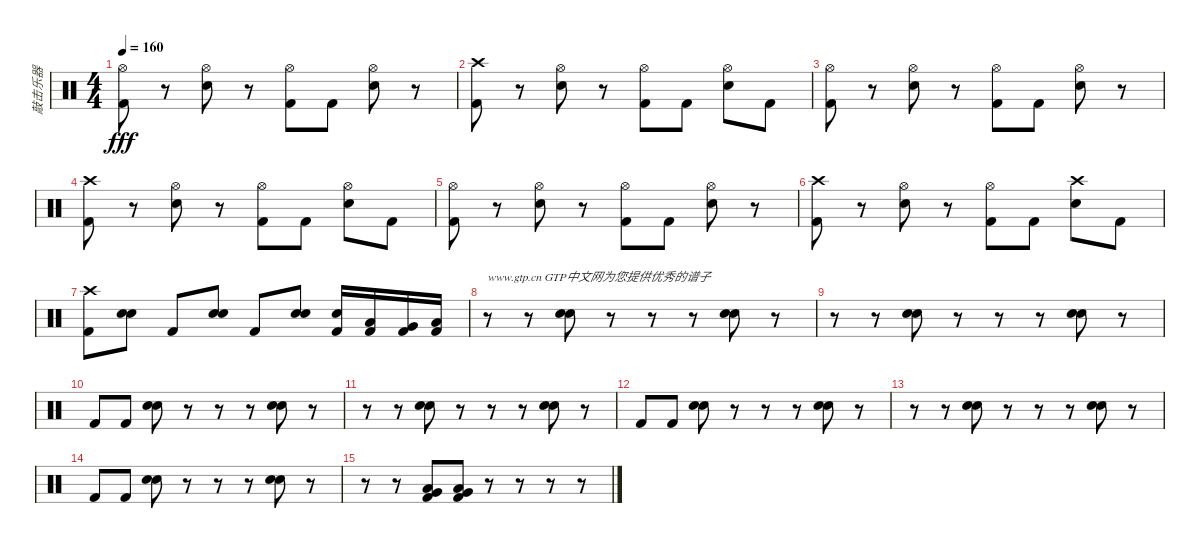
\track ("敲击乐器" "敲击乐器") {instrument percussion}
\staff {score}
\articulation defaults
\ts (4 4)
\tempo 160
\clef neutral
\ks c
("Hi-Hat (open)" "Kick (hit) 2").8{dy fff} r.8 ("Hi-Hat (open)" "Electric Snare (hit)").8 r.8 ("Hi-Hat (open)" "Kick (hit) 2").8 "Kick (hit) 2".8 ("Hi-Hat (open)" "Electric Snare (hit)").8 r.8 |
("Crash high (hit)" "Kick (hit) 2").8 r.8 ("Hi-Hat (open)" "Electric Snare (hit)").8 r.8 ("Hi-Hat (open)" "Kick (hit) 2").8 "Kick (hit) 2".8 ("Hi-Hat (open)" "Electric Snare (hit)").8 "Kick (hit) 2".8 |
("Hi-Hat (open)" "Kick (hit) 2").8 r.8 ("Hi-Hat (open)" "Electric Snare (hit)").8 r.8 ("Hi-Hat (open)" "Kick (hit) 2").8 "Kick (hit) 2".8 ("Hi-Hat (open)" "Electric Snare (hit)").8 r.8 |
("Crash high (hit)" "Kick (hit) 2").8 r.8 ("Hi-Hat (open)" "Electric Snare (hit)").8 r.8 ("Hi-Hat (open)" "Kick (hit) 2").8 "Kick (hit) 2".8 ("Hi-Hat (open)" "Electric Snare (hit)").8 "Kick (hit) 2".8 |
("Hi-Hat (open)" "Kick (hit) 2").8 r.8 ("Hi-Hat (open)" "Electric Snare (hit)").8 r.8 ("Hi-Hat (open)" "Kick (hit) 2").8 "Kick (hit) 2".8 ("Hi-Hat (open)" "Electric Snare (hit)").8 r.8 |
("Crash high (hit)" "Kick (hit) 2").8 r.8 ("Hi-Hat (open)" "Electric Snare (hit)").8 r.8 ("Hi-Hat (open)" "Kick (hit) 2").8 "Kick (hit) 2".8 ("Crash high (hit)" "Electric Snare (hit)").8 "Kick (hit) 2".8 |
("Crash high (hit)" "Kick (hit) 2").8 ("Snare (hit) 2" "Electric Snare (hit)").8 "Kick (hit) 2".8 ("Snare (hit) 2" "Electric Snare (hit)").8 "Kick (hit) 2".8 ("Snare (hit) 2" "Electric Snare (hit)").8 ("Electric Snare (hit)" "Kick (hit) 2").16 ("Low Tom (hit)" "Kick (hit) 2").16 ("Very Low Tom (hit)" "Kick (hit) 2").16 ("Low Floor Tom (hit)" "Kick (hit) 2").16 |
r.8{txt "www.gtp.cn GTP中文网为您提供优秀的谱子"} r.8 ("Snare (hit) 2" "Electric Snare (hit)").8 r.8 r.8 r.8 ("Snare (hit) 2" "Electric Snare (hit)").8 r.8 |
r.8 r.8 ("Snare (hit) 2" "Electric Snare (hit)").8 r.8 r.8 r.8 ("Snare (hit) 2" "Electric Snare (hit)").8 r.8 |
"Kick (hit) 2".8 "Kick (hit) 2".8 ("Snare (hit) 2" "Electric Snare (hit)").8 r.8 r.8 r.8 ("Snare (hit) 2" "Electric Snare (hit)").8 r.8 |
r.8 r.8 ("Snare (hit) 2" "Electric Snare (hit)").8 r.8 r.8 r.8 ("Snare (hit) 2" "Electric Snare (hit)").8 r.8 |
"Kick (hit) 2".8 "Kick (hit) 2".8 ("Snare (hit) 2" "Electric Snare (hit)").8 r.8 r.8 r.8 ("Snare (hit) 2" "Electric Snare (hit)").8 r.8 |
r.8 r.8 ("Snare (hit) 2" "Electric Snare (hit)").8 r.8 r.8 r.8 ("Snare (hit) 2" "Electric Snare (hit)").8 r.8 |
"Kick (hit) 2".8 "Kick (hit) 2".8 ("Snare (hit) 2" "Electric Snare (hit)").8 r.8 r.8 r.8 ("Snare (hit) 2" "Electric Snare (hit)").8 r.8 |
r.8 r.8 ("Low Floor Tom (hit)" "Very Low Tom (hit)" "Kick (hit) 2").8 ("Low Floor Tom (hit)" "Very Low Tom (hit)" "Kick (hit) 2").8 r.8 r.8 r.8 r.8
